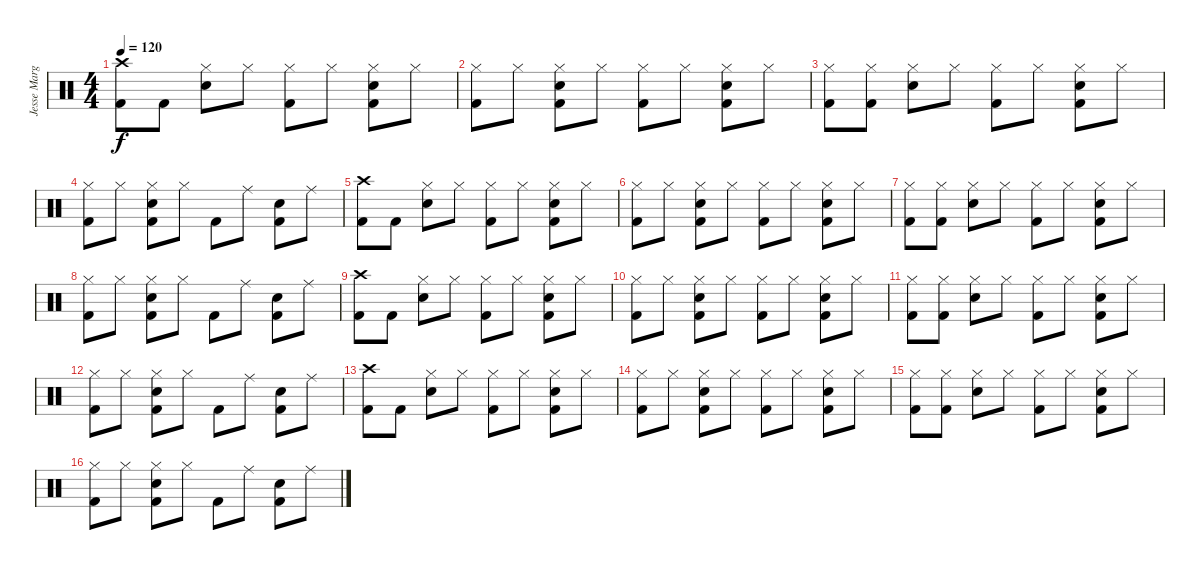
\track ("Jesse Margera" "Jesse Marg") {instrument percussion}
\staff {score}
\articulation defaults
\ts (4 4)
\tempo 120
\clef neutral
\ks c
("Crash high (hit)" "Kick (hit) 2").8{dy f} "Kick (hit) 2".8 ("Hi-Hat (closed)" "Electric Snare (hit)").8 "Hi-Hat (closed)".8 ("Hi-Hat (closed)" "Kick (hit) 2").8 "Hi-Hat (closed)".8 ("Hi-Hat (closed)" "Electric Snare (hit)" "Kick (hit) 2").8 "Hi-Hat (closed)".8 |
("Hi-Hat (closed)" "Kick (hit) 2").8 "Hi-Hat (closed)".8 ("Hi-Hat (closed)" "Electric Snare (hit)" "Kick (hit) 2").8 "Hi-Hat (closed)".8 ("Hi-Hat (closed)" "Kick (hit) 2").8 "Hi-Hat (closed)".8 ("Hi-Hat (closed)" "Electric Snare (hit)" "Kick (hit) 2").8 "Hi-Hat (closed)".8 |
("Hi-Hat (closed)" "Kick (hit) 2").8 ("Hi-Hat (closed)" "Kick (hit) 2").8 ("Hi-Hat (closed)" "Electric Snare (hit)").8 "Hi-Hat (closed)".8 ("Hi-Hat (closed)" "Kick (hit) 2").8 "Hi-Hat (closed)".8 ("Hi-Hat (closed)" "Electric Snare (hit)" "Kick (hit) 2").8 "Hi-Hat (closed)".8 |
("Hi-Hat (closed)" "Kick (hit) 2").8 "Hi-Hat (closed)".8 ("Hi-Hat (closed)" "Electric Snare (hit)" "Kick (hit) 2").8 "Hi-Hat (closed)".8 "Kick (hit) 2".8 "Ride (middle)".8 ("Electric Snare (hit)" "Kick (hit) 2").8 "Ride (middle)".8 |
("Crash high (hit)" "Kick (hit) 2").8 "Kick (hit) 2".8 ("Hi-Hat (closed)" "Electric Snare (hit)").8 "Hi-Hat (closed)".8 ("Hi-Hat (closed)" "Kick (hit) 2").8 "Hi-Hat (closed)".8 ("Hi-Hat (closed)" "Electric Snare (hit)" "Kick (hit) 2").8 "Hi-Hat (closed)".8 |
("Hi-Hat (closed)" "Kick (hit) 2").8 "Hi-Hat (closed)".8 ("Hi-Hat (closed)" "Electric Snare (hit)" "Kick (hit) 2").8 "Hi-Hat (closed)".8 ("Hi-Hat (closed)" "Kick (hit) 2").8 "Hi-Hat (closed)".8 ("Hi-Hat (closed)" "Electric Snare (hit)" "Kick (hit) 2").8 "Hi-Hat (closed)".8 |
("Hi-Hat (closed)" "Kick (hit) 2").8 ("Hi-Hat (closed)" "Kick (hit) 2").8 ("Hi-Hat (closed)" "Electric Snare (hit)").8 "Hi-Hat (closed)".8 ("Hi-Hat (closed)" "Kick (hit) 2").8 "Hi-Hat (closed)".8 ("Hi-Hat (closed)" "Electric Snare (hit)" "Kick (hit) 2").8 "Hi-Hat (closed)".8 |
("Hi-Hat (closed)" "Kick (hit) 2").8 "Hi-Hat (closed)".8 ("Hi-Hat (closed)" "Electric Snare (hit)" "Kick (hit) 2").8 "Hi-Hat (closed)".8 "Kick (hit) 2".8 "Ride (middle)".8 ("Electric Snare (hit)" "Kick (hit) 2").8 "Ride (middle)".8 |
("Crash high (hit)" "Kick (hit) 2").8 "Kick (hit) 2".8 ("Hi-Hat (closed)" "Electric Snare (hit)").8 "Hi-Hat (closed)".8 ("Hi-Hat (closed)" "Kick (hit) 2").8 "Hi-Hat (closed)".8 ("Hi-Hat (closed)" "Electric Snare (hit)" "Kick (hit) 2").8 "Hi-Hat (closed)".8 |
("Hi-Hat (closed)" "Kick (hit) 2").8 "Hi-Hat (closed)".8 ("Hi-Hat (closed)" "Electric Snare (hit)" "Kick (hit) 2").8 "Hi-Hat (closed)".8 ("Hi-Hat (closed)" "Kick (hit) 2").8 "Hi-Hat (closed)".8 ("Hi-Hat (closed)" "Electric Snare (hit)" "Kick (hit) 2").8 "Hi-Hat (closed)".8 |
("Hi-Hat (closed)" "Kick (hit) 2").8 ("Hi-Hat (closed)" "Kick (hit) 2").8 ("Hi-Hat (closed)" "Electric Snare (hit)").8 "Hi-Hat (closed)".8 ("Hi-Hat (closed)" "Kick (hit) 2").8 "Hi-Hat (closed)".8 ("Hi-Hat (closed)" "Electric Snare (hit)" "Kick (hit) 2").8 "Hi-Hat (closed)".8 |
("Hi-Hat (closed)" "Kick (hit) 2").8 "Hi-Hat (closed)".8 ("Hi-Hat (closed)" "Electric Snare (hit)" "Kick (hit) 2").8 "Hi-Hat (closed)".8 "Kick (hit) 2".8 "Ride (middle)".8 ("Electric Snare (hit)" "Kick (hit) 2").8 "Ride (middle)".8 |
("Crash high (hit)" "Kick (hit) 2").8 "Kick (hit) 2".8 ("Hi-Hat (closed)" "Electric Snare (hit)").8 "Hi-Hat (closed)".8 ("Hi-Hat (closed)" "Kick (hit) 2").8 "Hi-Hat (closed)".8 ("Hi-Hat (closed)" "Electric Snare (hit)" "Kick (hit) 2").8 "Hi-Hat (closed)".8 |
("Hi-Hat (closed)" "Kick (hit) 2").8 "Hi-Hat (closed)".8 ("Hi-Hat (closed)" "Electric Snare (hit)" "Kick (hit) 2").8 "Hi-Hat (closed)".8 ("Hi-Hat (closed)" "Kick (hit) 2").8 "Hi-Hat (closed)".8 ("Hi-Hat (closed)" "Electric Snare (hit)" "Kick (hit) 2").8 "Hi-Hat (closed)".8 |
("Hi-Hat (closed)" "Kick (hit) 2").8 ("Hi-Hat (closed)" "Kick (hit) 2").8 ("Hi-Hat (closed)" "Electric Snare (hit)").8 "Hi-Hat (closed)".8 ("Hi-Hat (closed)" "Kick (hit) 2").8 "Hi-Hat (closed)".8 ("Hi-Hat (closed)" "Electric Snare (hit)" "Kick (hit) 2").8 "Hi-Hat (closed)".8 |
("Hi-Hat (closed)" "Kick (hit) 2").8 "Hi-Hat (closed)".8 ("Hi-Hat (closed)" "Electric Snare (hit)" "Kick (hit) 2").8 "Hi-Hat (closed)".8 "Kick (hit) 2".8 "Ride (middle)".8 ("Electric Snare (hit)" "Kick (hit) 2").8 "Ride (middle)".8
